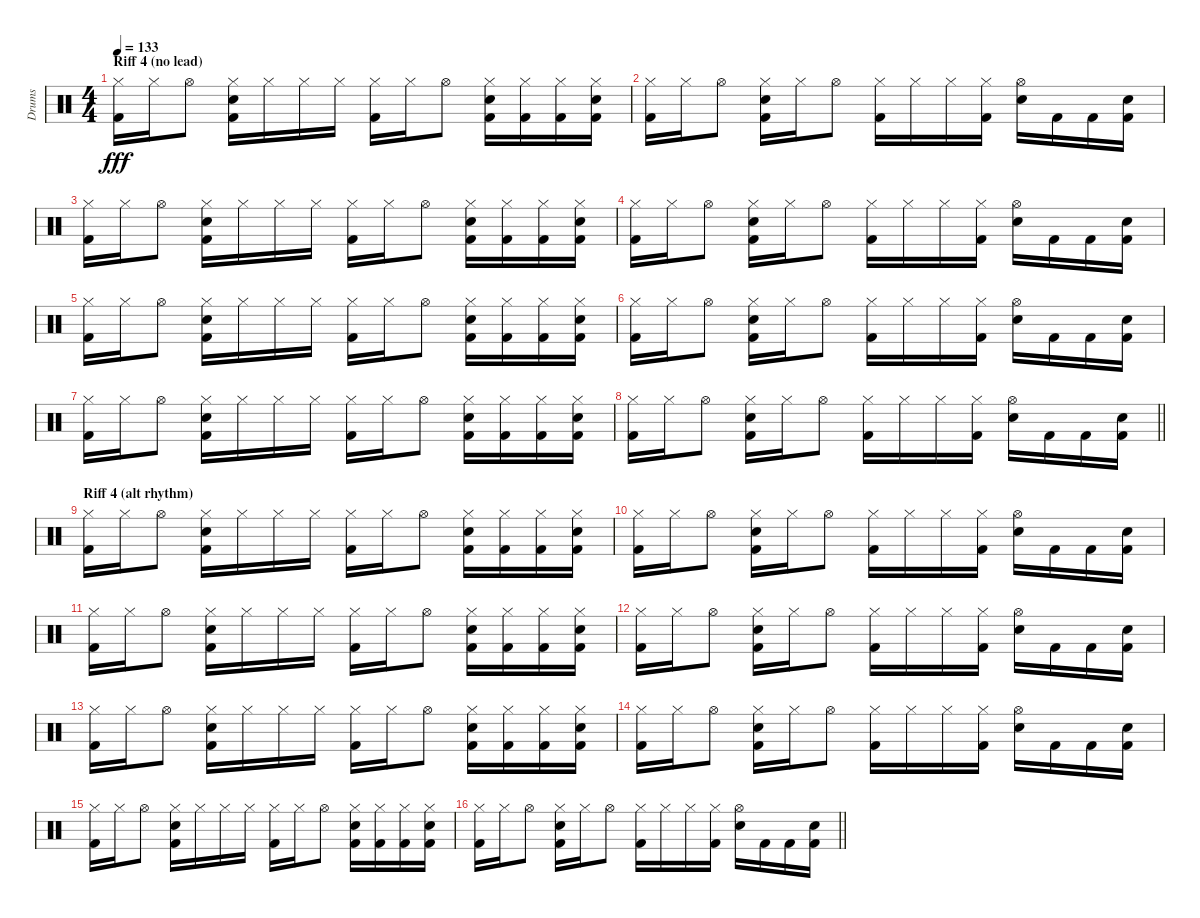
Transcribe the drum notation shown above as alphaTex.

\track ("Drums" "Drums") {instrument percussion}
\staff {score}
\articulation defaults
\ts (4 4)
\section ("" "Riff 4 (no lead)")
\tempo 133
\clef neutral
\ks c
("Kick (hit) 2" "Hi-Hat (closed)").16{dy fff} "Hi-Hat (closed)".16 "Hi-Hat (open)".8 ("Kick (hit) 2" "Snare (hit) 2" "Hi-Hat (closed)").16 "Hi-Hat (closed)".16 "Hi-Hat (closed)".16 "Hi-Hat (closed)".16 ("Kick (hit) 2" "Hi-Hat (closed)").16 "Hi-Hat (closed)".16 "Hi-Hat (open)".8 ("Kick (hit) 2" "Snare (hit) 2" "Hi-Hat (closed)").16 ("Kick (hit) 2" "Hi-Hat (closed)").16 ("Kick (hit) 2" "Hi-Hat (closed)").16 ("Kick (hit) 2" "Snare (hit) 2" "Hi-Hat (closed)").16 |
("Kick (hit) 2" "Hi-Hat (closed)").16 "Hi-Hat (closed)".16 "Hi-Hat (open)".8 ("Kick (hit) 2" "Snare (hit) 2" "Hi-Hat (closed)").16 "Hi-Hat (closed)".16 "Hi-Hat (open)".8 ("Kick (hit) 2" "Hi-Hat (closed)").16 "Hi-Hat (closed)".16 "Hi-Hat (closed)".16 ("Kick (hit) 2" "Hi-Hat (closed)").16 ("Snare (hit) 2" "Hi-Hat (open)").16 "Kick (hit) 2".16 "Kick (hit) 2".16 ("Kick (hit) 2" "Snare (hit) 2").16 |
("Kick (hit) 2" "Hi-Hat (closed)").16 "Hi-Hat (closed)".16 "Hi-Hat (open)".8 ("Kick (hit) 2" "Snare (hit) 2" "Hi-Hat (closed)").16 "Hi-Hat (closed)".16 "Hi-Hat (closed)".16 "Hi-Hat (closed)".16 ("Kick (hit) 2" "Hi-Hat (closed)").16 "Hi-Hat (closed)".16 "Hi-Hat (open)".8 ("Kick (hit) 2" "Snare (hit) 2" "Hi-Hat (closed)").16 ("Kick (hit) 2" "Hi-Hat (closed)").16 ("Kick (hit) 2" "Hi-Hat (closed)").16 ("Kick (hit) 2" "Snare (hit) 2" "Hi-Hat (closed)").16 |
("Kick (hit) 2" "Hi-Hat (closed)").16 "Hi-Hat (closed)".16 "Hi-Hat (open)".8 ("Kick (hit) 2" "Snare (hit) 2" "Hi-Hat (closed)").16 "Hi-Hat (closed)".16 "Hi-Hat (open)".8 ("Kick (hit) 2" "Hi-Hat (closed)").16 "Hi-Hat (closed)".16 "Hi-Hat (closed)".16 ("Kick (hit) 2" "Hi-Hat (closed)").16 ("Snare (hit) 2" "Hi-Hat (open)").16 "Kick (hit) 2".16 "Kick (hit) 2".16 ("Kick (hit) 2" "Snare (hit) 2").16 |
("Kick (hit) 2" "Hi-Hat (closed)").16 "Hi-Hat (closed)".16 "Hi-Hat (open)".8 ("Kick (hit) 2" "Snare (hit) 2" "Hi-Hat (closed)").16 "Hi-Hat (closed)".16 "Hi-Hat (closed)".16 "Hi-Hat (closed)".16 ("Kick (hit) 2" "Hi-Hat (closed)").16 "Hi-Hat (closed)".16 "Hi-Hat (open)".8 ("Kick (hit) 2" "Snare (hit) 2" "Hi-Hat (closed)").16 ("Kick (hit) 2" "Hi-Hat (closed)").16 ("Kick (hit) 2" "Hi-Hat (closed)").16 ("Kick (hit) 2" "Snare (hit) 2" "Hi-Hat (closed)").16 |
("Kick (hit) 2" "Hi-Hat (closed)").16 "Hi-Hat (closed)".16 "Hi-Hat (open)".8 ("Kick (hit) 2" "Snare (hit) 2" "Hi-Hat (closed)").16 "Hi-Hat (closed)".16 "Hi-Hat (open)".8 ("Kick (hit) 2" "Hi-Hat (closed)").16 "Hi-Hat (closed)".16 "Hi-Hat (closed)".16 ("Kick (hit) 2" "Hi-Hat (closed)").16 ("Snare (hit) 2" "Hi-Hat (open)").16 "Kick (hit) 2".16 "Kick (hit) 2".16 ("Kick (hit) 2" "Snare (hit) 2").16 |
("Kick (hit) 2" "Hi-Hat (closed)").16 "Hi-Hat (closed)".16 "Hi-Hat (open)".8 ("Kick (hit) 2" "Snare (hit) 2" "Hi-Hat (closed)").16 "Hi-Hat (closed)".16 "Hi-Hat (closed)".16 "Hi-Hat (closed)".16 ("Kick (hit) 2" "Hi-Hat (closed)").16 "Hi-Hat (closed)".16 "Hi-Hat (open)".8 ("Kick (hit) 2" "Snare (hit) 2" "Hi-Hat (closed)").16 ("Kick (hit) 2" "Hi-Hat (closed)").16 ("Kick (hit) 2" "Hi-Hat (closed)").16 ("Kick (hit) 2" "Snare (hit) 2" "Hi-Hat (closed)").16 |
\barLineRight lightlight
("Kick (hit) 2" "Hi-Hat (closed)").16 "Hi-Hat (closed)".16 "Hi-Hat (open)".8 ("Kick (hit) 2" "Snare (hit) 2" "Hi-Hat (closed)").16 "Hi-Hat (closed)".16 "Hi-Hat (open)".8 ("Kick (hit) 2" "Hi-Hat (closed)").16 "Hi-Hat (closed)".16 "Hi-Hat (closed)".16 ("Kick (hit) 2" "Hi-Hat (closed)").16 ("Snare (hit) 2" "Hi-Hat (open)").16 "Kick (hit) 2".16 "Kick (hit) 2".16 ("Kick (hit) 2" "Snare (hit) 2").16 |
\section ("" "Riff 4 (alt rhythm)")
("Kick (hit) 2" "Hi-Hat (closed)").16 "Hi-Hat (closed)".16 "Hi-Hat (open)".8 ("Kick (hit) 2" "Snare (hit) 2" "Hi-Hat (closed)").16 "Hi-Hat (closed)".16 "Hi-Hat (closed)".16 "Hi-Hat (closed)".16 ("Kick (hit) 2" "Hi-Hat (closed)").16 "Hi-Hat (closed)".16 "Hi-Hat (open)".8 ("Kick (hit) 2" "Snare (hit) 2" "Hi-Hat (closed)").16 ("Kick (hit) 2" "Hi-Hat (closed)").16 ("Kick (hit) 2" "Hi-Hat (closed)").16 ("Kick (hit) 2" "Snare (hit) 2" "Hi-Hat (closed)").16 |
("Kick (hit) 2" "Hi-Hat (closed)").16 "Hi-Hat (closed)".16 "Hi-Hat (open)".8 ("Kick (hit) 2" "Snare (hit) 2" "Hi-Hat (closed)").16 "Hi-Hat (closed)".16 "Hi-Hat (open)".8 ("Kick (hit) 2" "Hi-Hat (closed)").16 "Hi-Hat (closed)".16 "Hi-Hat (closed)".16 ("Kick (hit) 2" "Hi-Hat (closed)").16 ("Snare (hit) 2" "Hi-Hat (open)").16 "Kick (hit) 2".16 "Kick (hit) 2".16 ("Kick (hit) 2" "Snare (hit) 2").16 |
("Kick (hit) 2" "Hi-Hat (closed)").16 "Hi-Hat (closed)".16 "Hi-Hat (open)".8 ("Kick (hit) 2" "Snare (hit) 2" "Hi-Hat (closed)").16 "Hi-Hat (closed)".16 "Hi-Hat (closed)".16 "Hi-Hat (closed)".16 ("Kick (hit) 2" "Hi-Hat (closed)").16 "Hi-Hat (closed)".16 "Hi-Hat (open)".8 ("Kick (hit) 2" "Snare (hit) 2" "Hi-Hat (closed)").16 ("Kick (hit) 2" "Hi-Hat (closed)").16 ("Kick (hit) 2" "Hi-Hat (closed)").16 ("Kick (hit) 2" "Snare (hit) 2" "Hi-Hat (closed)").16 |
("Kick (hit) 2" "Hi-Hat (closed)").16 "Hi-Hat (closed)".16 "Hi-Hat (open)".8 ("Kick (hit) 2" "Snare (hit) 2" "Hi-Hat (closed)").16 "Hi-Hat (closed)".16 "Hi-Hat (open)".8 ("Kick (hit) 2" "Hi-Hat (closed)").16 "Hi-Hat (closed)".16 "Hi-Hat (closed)".16 ("Kick (hit) 2" "Hi-Hat (closed)").16 ("Snare (hit) 2" "Hi-Hat (open)").16 "Kick (hit) 2".16 "Kick (hit) 2".16 ("Kick (hit) 2" "Snare (hit) 2").16 |
("Kick (hit) 2" "Hi-Hat (closed)").16 "Hi-Hat (closed)".16 "Hi-Hat (open)".8 ("Kick (hit) 2" "Snare (hit) 2" "Hi-Hat (closed)").16 "Hi-Hat (closed)".16 "Hi-Hat (closed)".16 "Hi-Hat (closed)".16 ("Kick (hit) 2" "Hi-Hat (closed)").16 "Hi-Hat (closed)".16 "Hi-Hat (open)".8 ("Kick (hit) 2" "Snare (hit) 2" "Hi-Hat (closed)").16 ("Kick (hit) 2" "Hi-Hat (closed)").16 ("Kick (hit) 2" "Hi-Hat (closed)").16 ("Kick (hit) 2" "Snare (hit) 2" "Hi-Hat (closed)").16 |
("Kick (hit) 2" "Hi-Hat (closed)").16 "Hi-Hat (closed)".16 "Hi-Hat (open)".8 ("Kick (hit) 2" "Snare (hit) 2" "Hi-Hat (closed)").16 "Hi-Hat (closed)".16 "Hi-Hat (open)".8 ("Kick (hit) 2" "Hi-Hat (closed)").16 "Hi-Hat (closed)".16 "Hi-Hat (closed)".16 ("Kick (hit) 2" "Hi-Hat (closed)").16 ("Snare (hit) 2" "Hi-Hat (open)").16 "Kick (hit) 2".16 "Kick (hit) 2".16 ("Kick (hit) 2" "Snare (hit) 2").16 |
("Kick (hit) 2" "Hi-Hat (closed)").16 "Hi-Hat (closed)".16 "Hi-Hat (open)".8 ("Kick (hit) 2" "Snare (hit) 2" "Hi-Hat (closed)").16 "Hi-Hat (closed)".16 "Hi-Hat (closed)".16 "Hi-Hat (closed)".16 ("Kick (hit) 2" "Hi-Hat (closed)").16 "Hi-Hat (closed)".16 "Hi-Hat (open)".8 ("Kick (hit) 2" "Snare (hit) 2" "Hi-Hat (closed)").16 ("Kick (hit) 2" "Hi-Hat (closed)").16 ("Kick (hit) 2" "Hi-Hat (closed)").16 ("Kick (hit) 2" "Snare (hit) 2" "Hi-Hat (closed)").16 |
\barLineRight lightlight
("Kick (hit) 2" "Hi-Hat (closed)").16 "Hi-Hat (closed)".16 "Hi-Hat (open)".8 ("Kick (hit) 2" "Snare (hit) 2" "Hi-Hat (closed)").16 "Hi-Hat (closed)".16 "Hi-Hat (open)".8 ("Kick (hit) 2" "Hi-Hat (closed)").16 "Hi-Hat (closed)".16 "Hi-Hat (closed)".16 ("Kick (hit) 2" "Hi-Hat (closed)").16 ("Snare (hit) 2" "Hi-Hat (open)").16 "Kick (hit) 2".16 "Kick (hit) 2".16 ("Kick (hit) 2" "Snare (hit) 2").16
